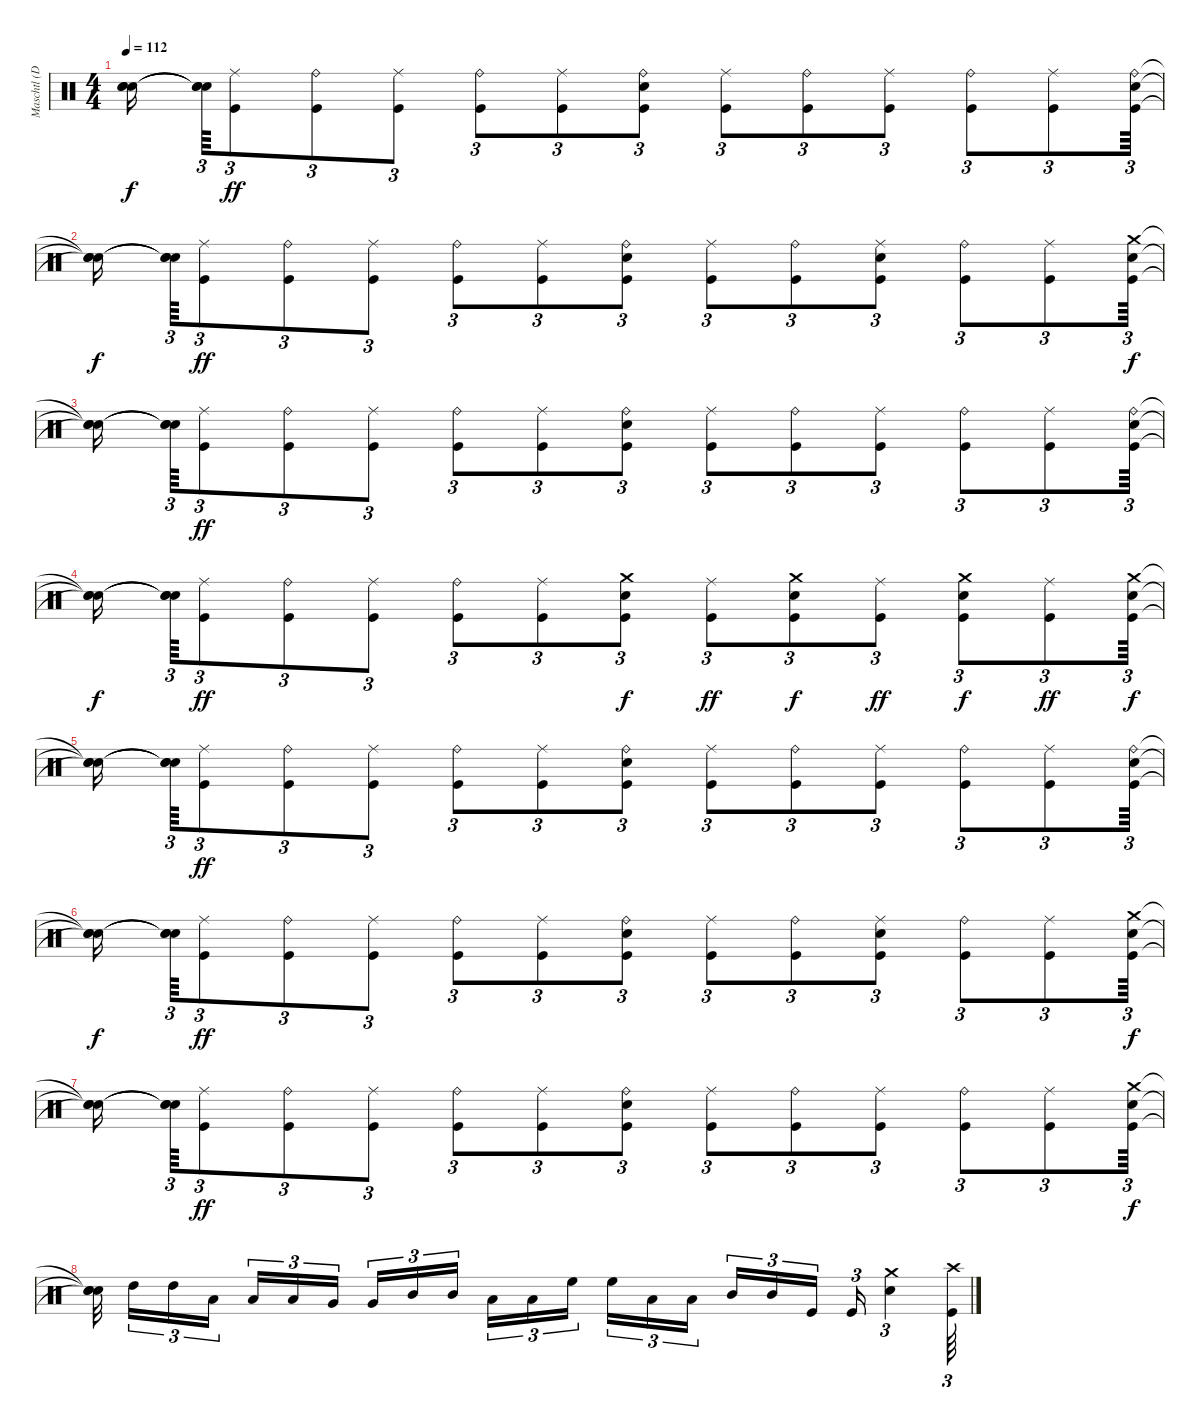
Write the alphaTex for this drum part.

\track ("Maschtl (Drums)" "Maschtl (D") {instrument percussion}
\staff {score}
\articulation defaults
\ts (4 4)
\tempo 112
\clef neutral
\ks c
("Snare (hit)"{t} "Snare (hit)"{t} "Snare (hit)"{t}).16{dy f} ("Snare (hit)"{t} "Snare (hit)"{t} "Snare (hit)"{t}).64{tu (3 2)} ("Ride (middle)" "Kick (hit)").8{tu (3 2) dy ff} ("Ride (bell)" "Kick (hit)").8{tu (3 2)} ("Ride (middle)" "Kick (hit)").8{tu (3 2)} ("Ride (bell)" "Kick (hit)").8{tu (3 2)} ("Ride (middle)" "Kick (hit)").8{tu (3 2)} ("Ride (bell)" "Electric Snare (hit)" "Kick (hit)").8{tu (3 2)} ("Ride (middle)" "Kick (hit)").8{tu (3 2)} ("Ride (bell)" "Kick (hit)").8{tu (3 2)} ("Ride (middle)" "Kick (hit)").8{tu (3 2)} ("Ride (bell)" "Kick (hit)").8{tu (3 2)} ("Ride (middle)" "Kick (hit)").8{tu (3 2)} ("Ride (bell)" "Electric Snare (hit)" "Kick (hit)").64{tu (3 2)} |
("Snare (hit)"{t} "Snare (hit)"{t} "Snare (hit)"{t}).16{dy f} ("Snare (hit)"{t} "Snare (hit)"{t} "Snare (hit)"{t}).64{tu (3 2)} ("Ride (middle)" "Kick (hit)").8{tu (3 2) dy ff} ("Ride (bell)" "Kick (hit)").8{tu (3 2)} ("Ride (middle)" "Kick (hit)").8{tu (3 2)} ("Ride (bell)" "Kick (hit)").8{tu (3 2)} ("Ride (middle)" "Kick (hit)").8{tu (3 2)} ("Ride (bell)" "Electric Snare (hit)" "Kick (hit)").8{tu (3 2)} ("Ride (middle)" "Kick (hit)").8{tu (3 2)} ("Ride (bell)" "Kick (hit)").8{tu (3 2)} ("Ride (middle)" "Electric Snare (hit)" "Kick (hit)").8{tu (3 2)} ("Ride (bell)" "Kick (hit)").8{tu (3 2)} ("Ride (middle)" "Kick (hit)").8{tu (3 2)} ("Crash medium (hit)" "Electric Snare (hit)" "Kick (hit)").64{tu (3 2) dy f} |
("Snare (hit)"{t} "Snare (hit)"{t} "Snare (hit)"{t}).16 ("Snare (hit)"{t} "Snare (hit)"{t} "Snare (hit)"{t}).64{tu (3 2)} ("Ride (middle)" "Kick (hit)").8{tu (3 2) dy ff} ("Ride (bell)" "Kick (hit)").8{tu (3 2)} ("Ride (middle)" "Kick (hit)").8{tu (3 2)} ("Ride (bell)" "Kick (hit)").8{tu (3 2)} ("Ride (middle)" "Kick (hit)").8{tu (3 2)} ("Ride (bell)" "Electric Snare (hit)" "Kick (hit)").8{tu (3 2)} ("Ride (middle)" "Kick (hit)").8{tu (3 2)} ("Ride (bell)" "Kick (hit)").8{tu (3 2)} ("Ride (middle)" "Kick (hit)").8{tu (3 2)} ("Ride (bell)" "Kick (hit)").8{tu (3 2)} ("Ride (middle)" "Kick (hit)").8{tu (3 2)} ("Ride (bell)" "Electric Snare (hit)" "Kick (hit)").64{tu (3 2)} |
("Snare (hit)"{t} "Snare (hit)"{t} "Snare (hit)"{t}).16{dy f} ("Snare (hit)"{t} "Snare (hit)"{t} "Snare (hit)"{t}).64{tu (3 2)} ("Ride (middle)" "Kick (hit)").8{tu (3 2) dy ff} ("Ride (bell)" "Kick (hit)").8{tu (3 2)} ("Ride (middle)" "Kick (hit)").8{tu (3 2)} ("Ride (bell)" "Kick (hit)").8{tu (3 2)} ("Ride (middle)" "Kick (hit)").8{tu (3 2)} ("Crash medium (hit)" "Electric Snare (hit)" "Kick (hit)").8{tu (3 2) dy f} ("Ride (middle)" "Kick (hit)").8{tu (3 2) dy ff} ("Crash medium (hit)" "Electric Snare (hit)" "Kick (hit)").8{tu (3 2) dy f} ("Ride (middle)" "Kick (hit)").8{tu (3 2) dy ff} ("Crash medium (hit)" "Electric Snare (hit)" "Kick (hit)").8{tu (3 2) dy f} ("Ride (middle)" "Kick (hit)").8{tu (3 2) dy ff} ("Crash medium (hit)" "Electric Snare (hit)" "Kick (hit)").64{tu (3 2) dy f} |
("Snare (hit)"{t} "Snare (hit)"{t} "Snare (hit)"{t}).16 ("Snare (hit)"{t} "Snare (hit)"{t} "Snare (hit)"{t}).64{tu (3 2)} ("Ride (middle)" "Kick (hit)").8{tu (3 2) dy ff} ("Ride (bell)" "Kick (hit)").8{tu (3 2)} ("Ride (middle)" "Kick (hit)").8{tu (3 2)} ("Ride (bell)" "Kick (hit)").8{tu (3 2)} ("Ride (middle)" "Kick (hit)").8{tu (3 2)} ("Ride (bell)" "Electric Snare (hit)" "Kick (hit)").8{tu (3 2)} ("Ride (middle)" "Kick (hit)").8{tu (3 2)} ("Ride (bell)" "Kick (hit)").8{tu (3 2)} ("Ride (middle)" "Kick (hit)").8{tu (3 2)} ("Ride (bell)" "Kick (hit)").8{tu (3 2)} ("Ride (middle)" "Kick (hit)").8{tu (3 2)} ("Ride (bell)" "Electric Snare (hit)" "Kick (hit)").64{tu (3 2)} |
("Snare (hit)"{t} "Snare (hit)"{t} "Snare (hit)"{t}).16{dy f} ("Snare (hit)"{t} "Snare (hit)"{t} "Snare (hit)"{t}).64{tu (3 2)} ("Ride (middle)" "Kick (hit)").8{tu (3 2) dy ff} ("Ride (bell)" "Kick (hit)").8{tu (3 2)} ("Ride (middle)" "Kick (hit)").8{tu (3 2)} ("Ride (bell)" "Kick (hit)").8{tu (3 2)} ("Ride (middle)" "Kick (hit)").8{tu (3 2)} ("Ride (bell)" "Electric Snare (hit)" "Kick (hit)").8{tu (3 2)} ("Ride (middle)" "Kick (hit)").8{tu (3 2)} ("Ride (bell)" "Kick (hit)").8{tu (3 2)} ("Ride (middle)" "Electric Snare (hit)" "Kick (hit)").8{tu (3 2)} ("Ride (bell)" "Kick (hit)").8{tu (3 2)} ("Ride (middle)" "Kick (hit)").8{tu (3 2)} ("Crash medium (hit)" "Electric Snare (hit)" "Kick (hit)").64{tu (3 2) dy f} |
("Snare (hit)"{t} "Snare (hit)"{t} "Snare (hit)"{t}).16 ("Snare (hit)"{t} "Snare (hit)"{t} "Snare (hit)"{t}).64{tu (3 2)} ("Ride (middle)" "Kick (hit)").8{tu (3 2) dy ff} ("Ride (bell)" "Kick (hit)").8{tu (3 2)} ("Ride (middle)" "Kick (hit)").8{tu (3 2)} ("Ride (bell)" "Kick (hit)").8{tu (3 2)} ("Ride (middle)" "Kick (hit)").8{tu (3 2)} ("Ride (bell)" "Electric Snare (hit)" "Kick (hit)").8{tu (3 2)} ("Ride (middle)" "Kick (hit)").8{tu (3 2)} ("Ride (bell)" "Kick (hit)").8{tu (3 2)} ("Ride (middle)" "Kick (hit)").8{tu (3 2)} ("Ride (bell)" "Kick (hit)").8{tu (3 2)} ("Ride (middle)" "Kick (hit)").8{tu (3 2)} ("Crash medium (hit)" "Electric Snare (hit)" "Kick (hit)").64{tu (3 2) dy f} |
("Snare (hit)"{t} "Snare (hit)"{t} "Snare (hit)"{t}).32 "High Tom (hit)".16{tu (3 2)} "High Tom (hit)".16{tu (3 2)} "Low Tom (hit)".16{tu (3 2)} "Low Tom (hit)".16{tu (3 2)} "Low Tom (hit)".16{tu (3 2)} "Very Low Tom (hit)".16{tu (3 2)} "Very Low Tom (hit)".16{tu (3 2)} "Mid Tom (hit)".16{tu (3 2)} "Mid Tom (hit)".16{tu (3 2)} "Low Tom (hit)".16{tu (3 2)} "Low Tom (hit)".16{tu (3 2)} "High Floor Tom (hit)".16{tu (3 2)} "High Floor Tom (hit)".16{tu (3 2)} "Low Tom (hit)".16{tu (3 2)} "Low Tom (hit)".16{tu (3 2)} "Mid Tom (hit)".16{tu (3 2)} "Mid Tom (hit)".16{tu (3 2)} "Kick (hit)".16{tu (3 2)} "Kick (hit)".16{tu (3 2)} ("Crash medium (hit)" "Electric Snare (hit)").4{tu (3 2)} ("Crash high (hit)" "Kick (hit)").64{tu (3 2)}
